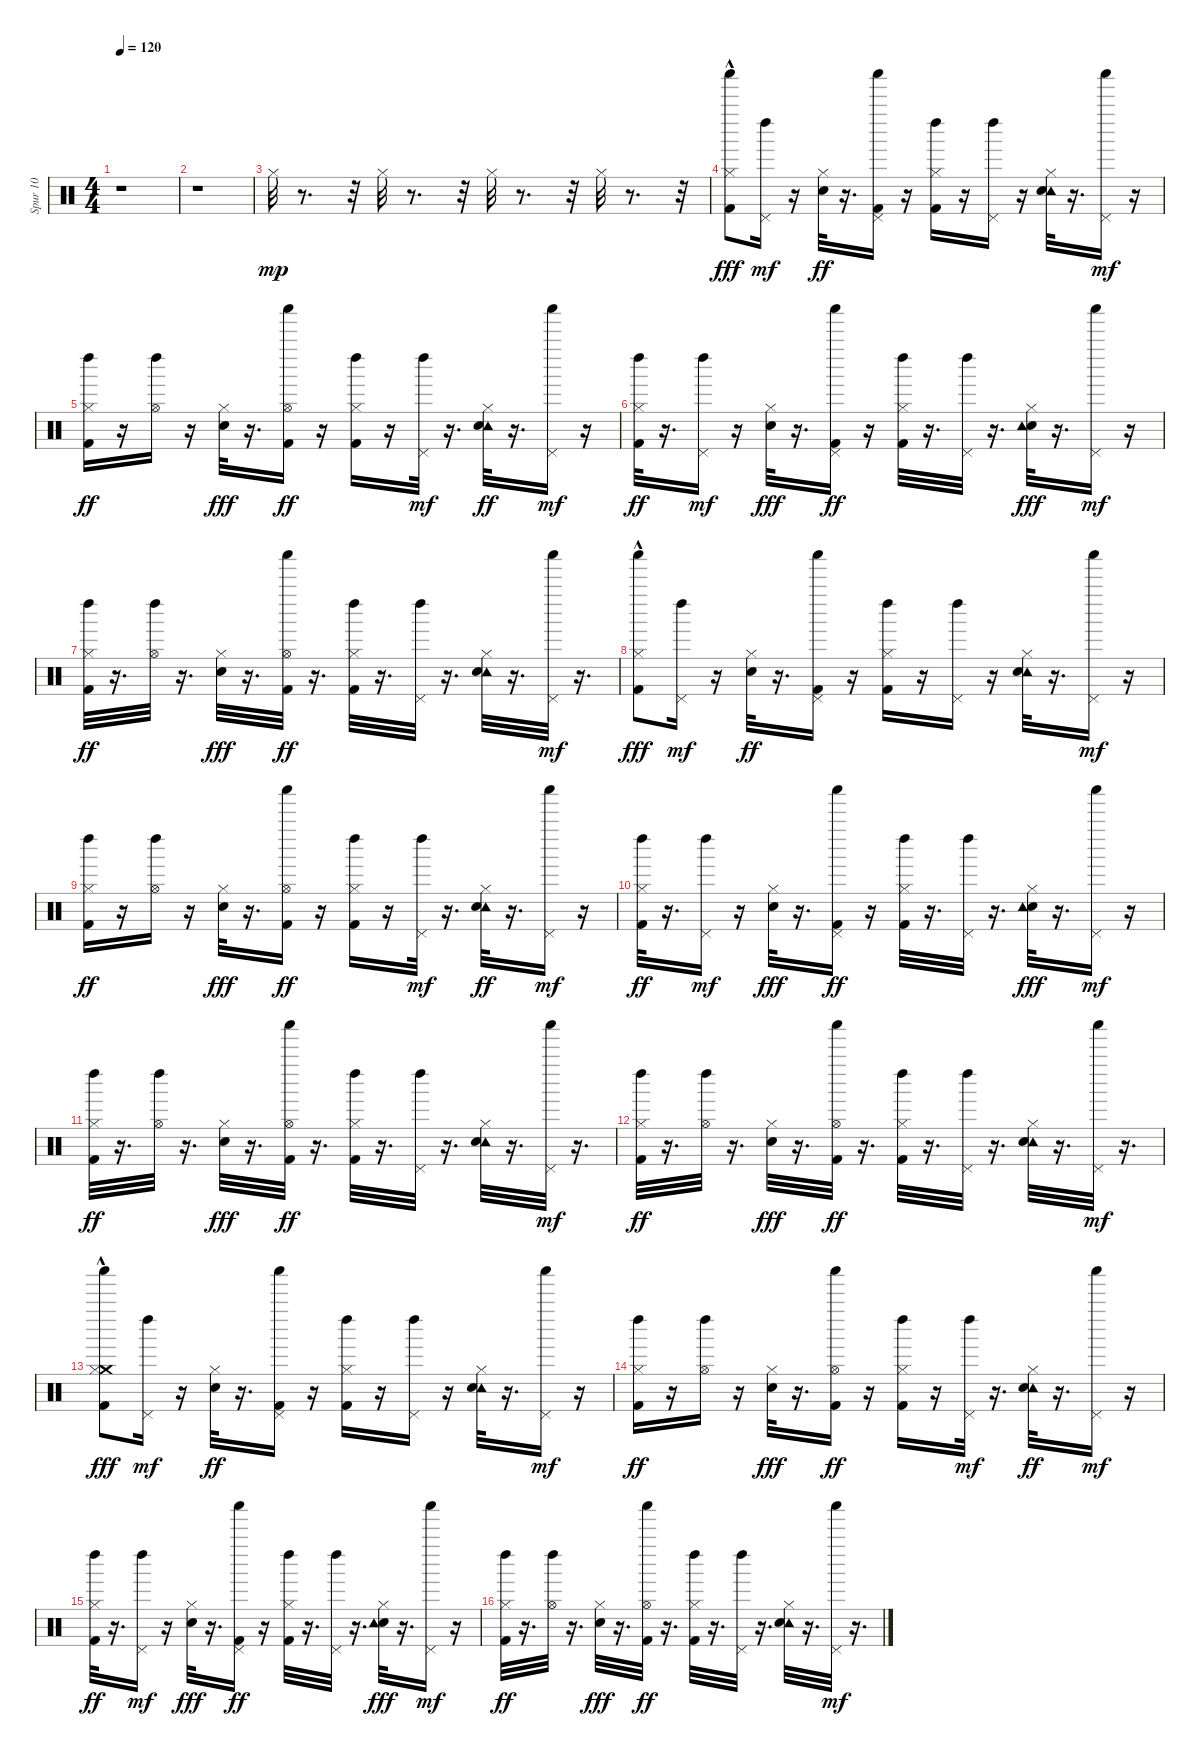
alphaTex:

\track ("Spur 10" "Spur 10") {instrument percussion}
\staff {score}
\articulation defaults
\ts (4 4)
\tempo 120
\clef neutral
\ks c
r.1{dy mp} |
r.1 |
"Hi-Hat (closed)".32 r.8{d} r.32 "Hi-Hat (closed)".32 r.8{d} r.32 "Hi-Hat (closed)".32 r.8{d} r.32 "Hi-Hat (closed)".32 r.8{d} r.32 |
("Shaker (hit)"{hac} "Kick (hit) 2" "Hi-Hat (closed)").8{dy fff} ("Left Maraca (hit)" "Pedal Hi-Hat (hit)").16{dy mf} r.16 ("Electric Snare (hit)" "Hi-Hat (closed)").32{dy ff} r.16{d} ("Shaker (hit)" "Kick (hit) 2" "Pedal Hi-Hat (hit)").16 r.16 ("Left Maraca (hit)" "Hi-Hat (closed)" "Kick (hit) 2").16 r.16 ("Left Maraca (hit)" "Pedal Hi-Hat (hit)").16 r.16 ("Tambourine (hit)" "Electric Snare (hit)" "Hi-Hat (closed)").32 r.16{d} ("Pedal Hi-Hat (hit)" "Shaker (hit)").16{dy mf} r.16 |
("Kick (hit) 2" "Hi-Hat (closed)" "Left Maraca (hit)").16{dy ff} r.16 ("Left Maraca (hit)" "Hi-Hat (open)").16 r.16 ("Hi-Hat (closed)" "Electric Snare (hit)").32{dy fff} r.16{d} ("Shaker (hit)" "Hi-Hat (open)" "Kick (hit) 2").16{dy ff} r.16 ("Left Maraca (hit)" "Hi-Hat (closed)" "Kick (hit) 2").16 r.16 ("Left Maraca (hit)" "Pedal Hi-Hat (hit)").32{dy mf} r.16{d} ("Tambourine (hit)" "Electric Snare (hit)" "Hi-Hat (closed)").32{dy ff} r.16{d} ("Shaker (hit)" "Pedal Hi-Hat (hit)").16{dy mf} r.16 |
("Kick (hit) 2" "Hi-Hat (closed)" "Left Maraca (hit)").32{dy ff} r.16{d} ("Left Maraca (hit)" "Pedal Hi-Hat (hit)").16{dy mf} r.16 ("Hi-Hat (closed)" "Electric Snare (hit)").32{dy fff} r.16{d} ("Shaker (hit)" "Kick (hit) 2" "Pedal Hi-Hat (hit)").16{dy ff} r.16 ("Left Maraca (hit)" "Hi-Hat (closed)" "Kick (hit) 2").32 r.16{d} ("Pedal Hi-Hat (hit)" "Left Maraca (hit)").32 r.16{d} ("Hi-Hat (closed)" "Electric Snare (hit)" "Tambourine (hit)").32{dy fff} r.16{d} ("Shaker (hit)" "Pedal Hi-Hat (hit)").16{dy mf} r.16 |
("Kick (hit) 2" "Hi-Hat (closed)" "Left Maraca (hit)").32{dy ff} r.16{d} ("Left Maraca (hit)" "Hi-Hat (open)").32 r.16{d} ("Electric Snare (hit)" "Hi-Hat (closed)").32{dy fff} r.16{d} ("Hi-Hat (open)" "Kick (hit) 2" "Shaker (hit)").32{dy ff} r.16{d} ("Left Maraca (hit)" "Hi-Hat (closed)" "Kick (hit) 2").32 r.16{d} ("Left Maraca (hit)" "Pedal Hi-Hat (hit)").32 r.16{d} ("Tambourine (hit)" "Electric Snare (hit)" "Hi-Hat (closed)").32 r.16{d} ("Pedal Hi-Hat (hit)" "Shaker (hit)").32{dy mf} r.16{d} |
("Shaker (hit)"{hac} "Kick (hit) 2" "Hi-Hat (closed)").8{dy fff} ("Left Maraca (hit)" "Pedal Hi-Hat (hit)").16{dy mf} r.16 ("Electric Snare (hit)" "Hi-Hat (closed)").32{dy ff} r.16{d} ("Shaker (hit)" "Kick (hit) 2" "Pedal Hi-Hat (hit)").16 r.16 ("Left Maraca (hit)" "Hi-Hat (closed)" "Kick (hit) 2").16 r.16 ("Left Maraca (hit)" "Pedal Hi-Hat (hit)").16 r.16 ("Tambourine (hit)" "Electric Snare (hit)" "Hi-Hat (closed)").32 r.16{d} ("Pedal Hi-Hat (hit)" "Shaker (hit)").16{dy mf} r.16 |
("Kick (hit) 2" "Hi-Hat (closed)" "Left Maraca (hit)").16{dy ff} r.16 ("Left Maraca (hit)" "Hi-Hat (open)").16 r.16 ("Hi-Hat (closed)" "Electric Snare (hit)").32{dy fff} r.16{d} ("Shaker (hit)" "Hi-Hat (open)" "Kick (hit) 2").16{dy ff} r.16 ("Left Maraca (hit)" "Hi-Hat (closed)" "Kick (hit) 2").16 r.16 ("Left Maraca (hit)" "Pedal Hi-Hat (hit)").32{dy mf} r.16{d} ("Tambourine (hit)" "Electric Snare (hit)" "Hi-Hat (closed)").32{dy ff} r.16{d} ("Shaker (hit)" "Pedal Hi-Hat (hit)").16{dy mf} r.16 |
("Kick (hit) 2" "Hi-Hat (closed)" "Left Maraca (hit)").32{dy ff} r.16{d} ("Left Maraca (hit)" "Pedal Hi-Hat (hit)").16{dy mf} r.16 ("Hi-Hat (closed)" "Electric Snare (hit)").32{dy fff} r.16{d} ("Shaker (hit)" "Kick (hit) 2" "Pedal Hi-Hat (hit)").16{dy ff} r.16 ("Left Maraca (hit)" "Hi-Hat (closed)" "Kick (hit) 2").32 r.16{d} ("Pedal Hi-Hat (hit)" "Left Maraca (hit)").32 r.16{d} ("Hi-Hat (closed)" "Electric Snare (hit)" "Tambourine (hit)").32{dy fff} r.16{d} ("Shaker (hit)" "Pedal Hi-Hat (hit)").16{dy mf} r.16 |
("Kick (hit) 2" "Hi-Hat (closed)" "Left Maraca (hit)").32{dy ff} r.16{d} ("Left Maraca (hit)" "Hi-Hat (open)").32 r.16{d} ("Electric Snare (hit)" "Hi-Hat (closed)").32{dy fff} r.16{d} ("Hi-Hat (open)" "Kick (hit) 2" "Shaker (hit)").32{dy ff} r.16{d} ("Left Maraca (hit)" "Hi-Hat (closed)" "Kick (hit) 2").32 r.16{d} ("Left Maraca (hit)" "Pedal Hi-Hat (hit)").32 r.16{d} ("Tambourine (hit)" "Electric Snare (hit)" "Hi-Hat (closed)").32 r.16{d} ("Pedal Hi-Hat (hit)" "Shaker (hit)").32{dy mf} r.16{d} |
("Kick (hit) 2" "Hi-Hat (closed)" "Left Maraca (hit)").32{dy ff} r.16{d} ("Left Maraca (hit)" "Hi-Hat (open)").32 r.16{d} ("Electric Snare (hit)" "Hi-Hat (closed)").32{dy fff} r.16{d} ("Hi-Hat (open)" "Kick (hit) 2" "Shaker (hit)").32{dy ff} r.16{d} ("Left Maraca (hit)" "Hi-Hat (closed)" "Kick (hit) 2").32 r.16{d} ("Left Maraca (hit)" "Pedal Hi-Hat (hit)").32 r.16{d} ("Tambourine (hit)" "Electric Snare (hit)" "Hi-Hat (closed)").32 r.16{d} ("Pedal Hi-Hat (hit)" "Shaker (hit)").32{dy mf} r.16{d} |
("Crash medium (hit)" "Shaker (hit)"{hac} "Kick (hit) 2" "Hi-Hat (closed)").8{dy fff} ("Left Maraca (hit)" "Pedal Hi-Hat (hit)").16{dy mf} r.16 ("Electric Snare (hit)" "Hi-Hat (closed)").32{dy ff} r.16{d} ("Shaker (hit)" "Kick (hit) 2" "Pedal Hi-Hat (hit)").16 r.16 ("Left Maraca (hit)" "Hi-Hat (closed)" "Kick (hit) 2").16 r.16 ("Left Maraca (hit)" "Pedal Hi-Hat (hit)").16 r.16 ("Tambourine (hit)" "Electric Snare (hit)" "Hi-Hat (closed)").32 r.16{d} ("Pedal Hi-Hat (hit)" "Shaker (hit)").16{dy mf} r.16 |
("Kick (hit) 2" "Hi-Hat (closed)" "Left Maraca (hit)").16{dy ff} r.16 ("Left Maraca (hit)" "Hi-Hat (open)").16 r.16 ("Hi-Hat (closed)" "Electric Snare (hit)").32{dy fff} r.16{d} ("Shaker (hit)" "Hi-Hat (open)" "Kick (hit) 2").16{dy ff} r.16 ("Left Maraca (hit)" "Hi-Hat (closed)" "Kick (hit) 2").16 r.16 ("Left Maraca (hit)" "Pedal Hi-Hat (hit)").32{dy mf} r.16{d} ("Tambourine (hit)" "Electric Snare (hit)" "Hi-Hat (closed)").32{dy ff} r.16{d} ("Shaker (hit)" "Pedal Hi-Hat (hit)").16{dy mf} r.16 |
("Kick (hit) 2" "Hi-Hat (closed)" "Left Maraca (hit)").32{dy ff} r.16{d} ("Left Maraca (hit)" "Pedal Hi-Hat (hit)").16{dy mf} r.16 ("Hi-Hat (closed)" "Electric Snare (hit)").32{dy fff} r.16{d} ("Shaker (hit)" "Kick (hit) 2" "Pedal Hi-Hat (hit)").16{dy ff} r.16 ("Left Maraca (hit)" "Hi-Hat (closed)" "Kick (hit) 2").32 r.16{d} ("Pedal Hi-Hat (hit)" "Left Maraca (hit)").32 r.16{d} ("Hi-Hat (closed)" "Electric Snare (hit)" "Tambourine (hit)").32{dy fff} r.16{d} ("Shaker (hit)" "Pedal Hi-Hat (hit)").16{dy mf} r.16 |
("Kick (hit) 2" "Hi-Hat (closed)" "Left Maraca (hit)").32{dy ff} r.16{d} ("Left Maraca (hit)" "Hi-Hat (open)").32 r.16{d} ("Electric Snare (hit)" "Hi-Hat (closed)").32{dy fff} r.16{d} ("Hi-Hat (open)" "Kick (hit) 2" "Shaker (hit)").32{dy ff} r.16{d} ("Left Maraca (hit)" "Hi-Hat (closed)" "Kick (hit) 2").32 r.16{d} ("Left Maraca (hit)" "Pedal Hi-Hat (hit)").32 r.16{d} ("Tambourine (hit)" "Electric Snare (hit)" "Hi-Hat (closed)").32 r.16{d} ("Pedal Hi-Hat (hit)" "Shaker (hit)").32{dy mf} r.16{d}
